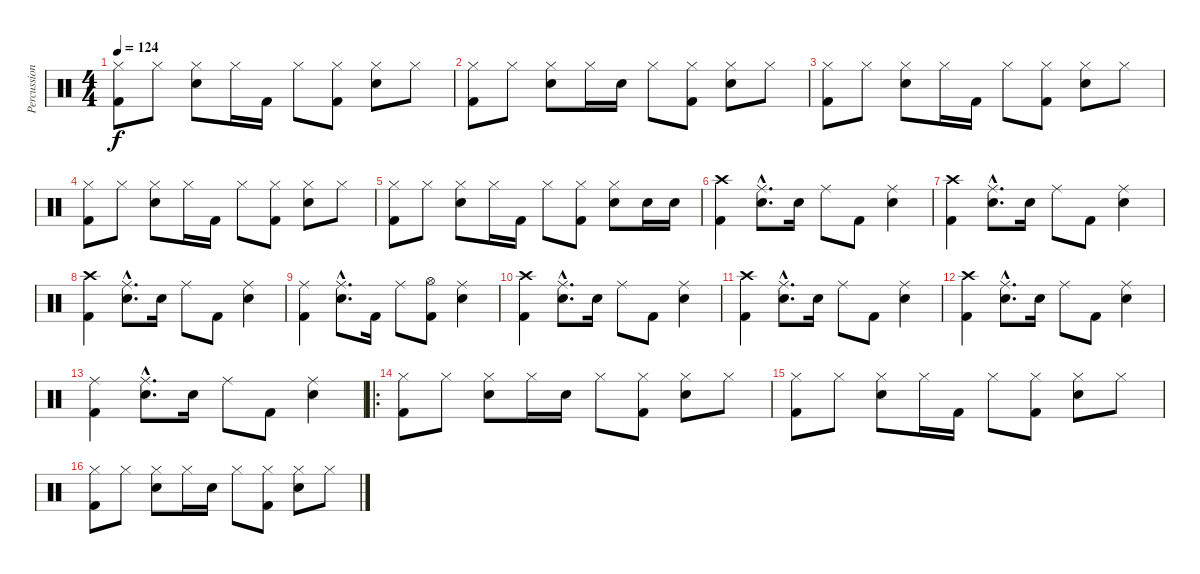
\track ("Percussion" "Percussion") {instrument percussion}
\staff {score}
\articulation defaults
\ts (4 4)
\tempo 124
\clef neutral
\ks c
("Hi-Hat (closed)" "Kick (hit) 2").8{dy f} "Hi-Hat (closed)".8 ("Hi-Hat (closed)" "Electric Snare (hit)").8 "Hi-Hat (closed)".16 "Kick (hit) 2".16 "Hi-Hat (closed)".8 ("Hi-Hat (closed)" "Kick (hit) 2").8 ("Hi-Hat (closed)" "Electric Snare (hit)").8 "Hi-Hat (closed)".8 |
("Hi-Hat (closed)" "Kick (hit) 2").8 "Hi-Hat (closed)".8 ("Hi-Hat (closed)" "Electric Snare (hit)").8 "Hi-Hat (closed)".16 "Electric Snare (hit)".16 "Hi-Hat (closed)".8 ("Hi-Hat (closed)" "Kick (hit) 2").8 ("Hi-Hat (closed)" "Electric Snare (hit)").8 "Hi-Hat (closed)".8 |
("Hi-Hat (closed)" "Kick (hit) 2").8 "Hi-Hat (closed)".8 ("Hi-Hat (closed)" "Electric Snare (hit)").8 "Hi-Hat (closed)".16 "Kick (hit) 2".16 "Hi-Hat (closed)".8 ("Hi-Hat (closed)" "Kick (hit) 2").8 ("Hi-Hat (closed)" "Electric Snare (hit)").8 "Hi-Hat (closed)".8 |
("Hi-Hat (closed)" "Kick (hit) 2").8 "Hi-Hat (closed)".8 ("Hi-Hat (closed)" "Electric Snare (hit)").8 "Hi-Hat (closed)".16 "Kick (hit) 2".16 "Hi-Hat (closed)".8 ("Hi-Hat (closed)" "Kick (hit) 2").8 ("Hi-Hat (closed)" "Electric Snare (hit)").8 "Hi-Hat (closed)".8 |
("Hi-Hat (closed)" "Kick (hit) 2").8 "Hi-Hat (closed)".8 ("Hi-Hat (closed)" "Electric Snare (hit)").8 "Hi-Hat (closed)".16 "Kick (hit) 2".16 "Hi-Hat (closed)".8 ("Hi-Hat (closed)" "Kick (hit) 2").8 ("Hi-Hat (closed)" "Electric Snare (hit)").8 "Electric Snare (hit)".16 "Electric Snare (hit)".16 |
("Crash high (hit)" "Kick (hit) 2").4 ("Ride (middle)"{hac} "Electric Snare (hit)"{hac}).8{d} "Electric Snare (hit)".16 "Ride (middle)".8 "Kick (hit) 2".8 ("Ride (middle)" "Electric Snare (hit)").4 |
("Crash high (hit)" "Kick (hit) 2").4 ("Ride (middle)"{hac} "Electric Snare (hit)"{hac}).8{d} "Electric Snare (hit)".16 "Ride (middle)".8 "Kick (hit) 2".8 ("Ride (middle)" "Electric Snare (hit)").4 |
("Crash high (hit)" "Kick (hit) 2").4 ("Ride (middle)"{hac} "Electric Snare (hit)"{hac}).8{d} "Electric Snare (hit)".16 "Ride (middle)".8 "Kick (hit) 2".8 ("Ride (middle)" "Electric Snare (hit)").4 |
("Ride (middle)" "Kick (hit) 2").4 ("Ride (middle)"{hac} "Electric Snare (hit)"{hac}).8{d} "Kick (hit) 2".16 "Ride (middle)".8 ("Hi-Hat (open)" "Kick (hit) 2").8 ("Ride (middle)" "Electric Snare (hit)").4 |
("Crash high (hit)" "Kick (hit) 2").4 ("Ride (middle)"{hac} "Electric Snare (hit)"{hac}).8{d} "Electric Snare (hit)".16 "Ride (middle)".8 "Kick (hit) 2".8 ("Ride (middle)" "Electric Snare (hit)").4 |
("Crash high (hit)" "Kick (hit) 2").4 ("Ride (middle)"{hac} "Electric Snare (hit)"{hac}).8{d} "Electric Snare (hit)".16 "Ride (middle)".8 "Kick (hit) 2".8 ("Ride (middle)" "Electric Snare (hit)").4 |
("Crash high (hit)" "Kick (hit) 2").4 ("Ride (middle)"{hac} "Electric Snare (hit)"{hac}).8{d} "Electric Snare (hit)".16 "Ride (middle)".8 "Kick (hit) 2".8 ("Ride (middle)" "Electric Snare (hit)").4 |
("Ride (middle)" "Kick (hit) 2").4 ("Ride (middle)"{hac} "Electric Snare (hit)"{hac}).8{d} "Electric Snare (hit)".16 "Ride (middle)".8 "Kick (hit) 2".8 ("Ride (middle)" "Electric Snare (hit)").4 |
\ro
("Hi-Hat (closed)" "Kick (hit) 2").8 "Hi-Hat (closed)".8 ("Hi-Hat (closed)" "Electric Snare (hit)").8 "Hi-Hat (closed)".16 "Electric Snare (hit)".16 "Hi-Hat (closed)".8 ("Hi-Hat (closed)" "Kick (hit) 2").8 ("Hi-Hat (closed)" "Electric Snare (hit)").8 "Hi-Hat (closed)".8 |
("Hi-Hat (closed)" "Kick (hit) 2").8 "Hi-Hat (closed)".8 ("Hi-Hat (closed)" "Electric Snare (hit)").8 "Hi-Hat (closed)".16 "Kick (hit) 2".16 "Hi-Hat (closed)".8 ("Hi-Hat (closed)" "Kick (hit) 2").8 ("Hi-Hat (closed)" "Electric Snare (hit)").8 "Hi-Hat (closed)".8 |
("Hi-Hat (closed)" "Kick (hit) 2").8 "Hi-Hat (closed)".8 ("Hi-Hat (closed)" "Electric Snare (hit)").8 "Hi-Hat (closed)".16 "Electric Snare (hit)".16 "Hi-Hat (closed)".8 ("Hi-Hat (closed)" "Kick (hit) 2").8 ("Hi-Hat (closed)" "Electric Snare (hit)").8 "Hi-Hat (closed)".8
